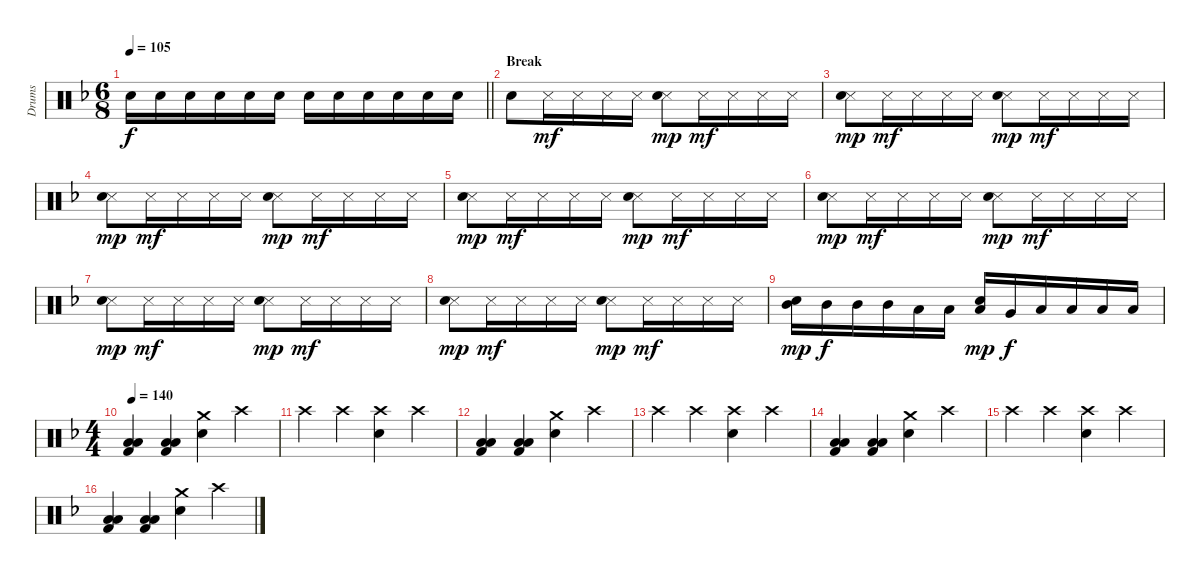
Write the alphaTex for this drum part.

\track ("Drums" "Drums") {instrument percussion}
\staff {score}
\articulation defaults
\ts (6 8)
\tempo 105
\clef neutral
\barLineRight lightlight
\ks dminor "Electric Snare (hit)".16{dy f} "Electric Snare (hit)".16 "Electric Snare (hit)".16 "Electric Snare (hit)".16 "Electric Snare (hit)".16 "Electric Snare (hit)".16 "Electric Snare (hit)".16 "Electric Snare (hit)".16 "Electric Snare (hit)".16 "Electric Snare (hit)".16 "Electric Snare (hit)".16 "Electric Snare (hit)".16
|
\section ("" "Break")
"Electric Snare (hit)".8 "Snare (side stick) 3".16{dy mf} "Snare (side stick) 3".16 "Snare (side stick) 3".16 "Snare (side stick) 3".16 ("Snare (side stick) 3" "Hand Clap (hit)").8{dy mp} "Snare (side stick) 3".16{dy mf} "Snare (side stick) 3".16 "Snare (side stick) 3".16 "Snare (side stick) 3".16 |
("Snare (side stick) 3" "Hand Clap (hit)").8{dy mp} "Snare (side stick) 3".16{dy mf} "Snare (side stick) 3".16 "Snare (side stick) 3".16 "Snare (side stick) 3".16 ("Snare (side stick) 3" "Hand Clap (hit)").8{dy mp} "Snare (side stick) 3".16{dy mf} "Snare (side stick) 3".16 "Snare (side stick) 3".16 "Snare (side stick) 3".16 |
("Snare (side stick) 3" "Hand Clap (hit)").8{dy mp} "Snare (side stick) 3".16{dy mf} "Snare (side stick) 3".16 "Snare (side stick) 3".16 "Snare (side stick) 3".16 ("Snare (side stick) 3" "Hand Clap (hit)").8{dy mp} "Snare (side stick) 3".16{dy mf} "Snare (side stick) 3".16 "Snare (side stick) 3".16 "Snare (side stick) 3".16 |
("Snare (side stick) 3" "Hand Clap (hit)").8{dy mp} "Snare (side stick) 3".16{dy mf} "Snare (side stick) 3".16 "Snare (side stick) 3".16 "Snare (side stick) 3".16 ("Snare (side stick) 3" "Hand Clap (hit)").8{dy mp} "Snare (side stick) 3".16{dy mf} "Snare (side stick) 3".16 "Snare (side stick) 3".16 "Snare (side stick) 3".16 |
("Snare (side stick) 3" "Hand Clap (hit)").8{dy mp} "Snare (side stick) 3".16{dy mf} "Snare (side stick) 3".16 "Snare (side stick) 3".16 "Snare (side stick) 3".16 ("Snare (side stick) 3" "Hand Clap (hit)").8{dy mp} "Snare (side stick) 3".16{dy mf} "Snare (side stick) 3".16 "Snare (side stick) 3".16 "Snare (side stick) 3".16 |
("Snare (side stick) 3" "Hand Clap (hit)").8{dy mp} "Snare (side stick) 3".16{dy mf} "Snare (side stick) 3".16 "Snare (side stick) 3".16 "Snare (side stick) 3".16 ("Snare (side stick) 3" "Hand Clap (hit)").8{dy mp} "Snare (side stick) 3".16{dy mf} "Snare (side stick) 3".16 "Snare (side stick) 3".16 "Snare (side stick) 3".16 |
("Snare (side stick) 3" "Hand Clap (hit)").8{dy mp} "Snare (side stick) 3".16{dy mf} "Snare (side stick) 3".16 "Snare (side stick) 3".16 "Snare (side stick) 3".16 ("Snare (side stick) 3" "Hand Clap (hit)").8{dy mp} "Snare (side stick) 3".16{dy mf} "Snare (side stick) 3".16 "Snare (side stick) 3".16 "Snare (side stick) 3".16 |
("Mid Tom (hit)" "Hand Clap (hit)").16{dy mp} "Mid Tom (hit)".16{dy f} "Mid Tom (hit)".16 "Mid Tom (hit)".16 "Low Tom (hit)".16 "Low Tom (hit)".16 ("Low Tom (hit)" "Hand Clap (hit)").16{dy mp} "Very Low Tom (hit)".16{dy f} "Low Floor Tom (hit)".16 "Low Floor Tom (hit)".16 "Low Floor Tom (hit)".16 "Low Floor Tom (hit)".16 |
\ts (4 4)
\tempo 140
("Low Tom (hit)" "Low Floor Tom (hit)" "Kick (hit) 2").4 ("Low Tom (hit)" "Low Floor Tom (hit)" "Kick (hit) 2").4 ("Electric Snare (hit)" "Crash medium (hit)").4 "Crash high (hit)".4 |
"Crash high (hit)".4 "Crash high (hit)".4 ("Crash high (hit)" "Electric Snare (hit)").4 "Crash high (hit)".4 |
("Low Tom (hit)" "Low Floor Tom (hit)" "Kick (hit) 2").4 ("Low Tom (hit)" "Low Floor Tom (hit)" "Kick (hit) 2").4 ("Electric Snare (hit)" "Crash medium (hit)").4 "Crash high (hit)".4 |
"Crash high (hit)".4 "Crash high (hit)".4 ("Crash high (hit)" "Electric Snare (hit)").4 "Crash high (hit)".4 |
("Low Tom (hit)" "Low Floor Tom (hit)" "Kick (hit) 2").4 ("Low Tom (hit)" "Low Floor Tom (hit)" "Kick (hit) 2").4 ("Electric Snare (hit)" "Crash medium (hit)").4 "Crash high (hit)".4 |
"Crash high (hit)".4 "Crash high (hit)".4 ("Crash high (hit)" "Electric Snare (hit)").4 "Crash high (hit)".4 |
("Low Tom (hit)" "Low Floor Tom (hit)" "Kick (hit) 2").4 ("Low Tom (hit)" "Low Floor Tom (hit)" "Kick (hit) 2").4 ("Electric Snare (hit)" "Crash medium (hit)").4 "Crash high (hit)".4
